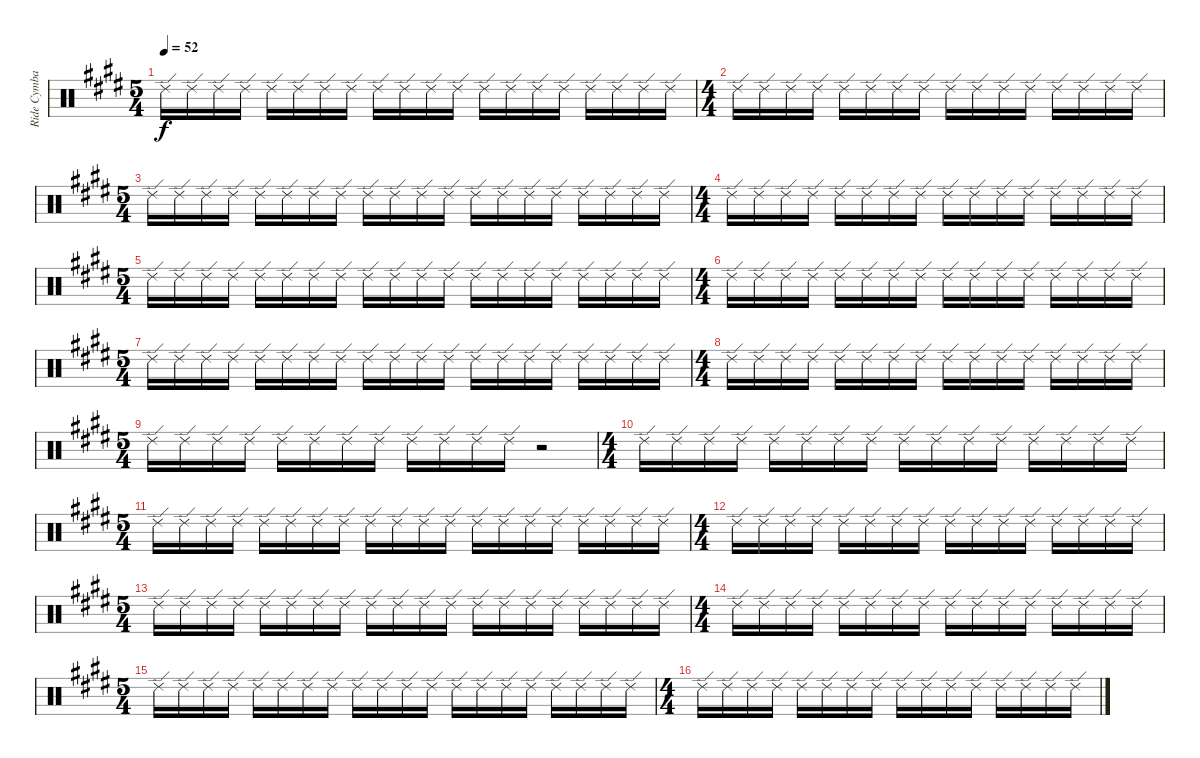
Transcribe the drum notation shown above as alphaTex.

\track ("Ride Cymbal" "Ride Cymba") {instrument percussion}
\staff {score}
\articulation defaults
\ts (5 4)
\tempo 52
\clef neutral
\ks e "Ride (edge) 2".16{dy f} "Ride (edge) 2".16 "Ride (edge) 2".16 "Ride (edge) 2".16 "Ride (edge) 2".16 "Ride (edge) 2".16 "Ride (edge) 2".16 "Ride (edge) 2".16 "Ride (edge) 2".16 "Ride (edge) 2".16 "Ride (edge) 2".16 "Ride (edge) 2".16 "Ride (edge) 2".16 "Ride (edge) 2".16 "Ride (edge) 2".16 "Ride (edge) 2".16 "Ride (edge) 2".16 "Ride (edge) 2".16 "Ride (edge) 2".16 "Ride (edge) 2".16
|
\ts (4 4)
"Ride (edge) 2".16 "Ride (edge) 2".16 "Ride (edge) 2".16 "Ride (edge) 2".16 "Ride (edge) 2".16 "Ride (edge) 2".16 "Ride (edge) 2".16 "Ride (edge) 2".16 "Ride (edge) 2".16 "Ride (edge) 2".16 "Ride (edge) 2".16 "Ride (edge) 2".16 "Ride (edge) 2".16 "Ride (edge) 2".16 "Ride (edge) 2".16 "Ride (edge) 2".16 |
\ts (5 4)
"Ride (edge) 2".16 "Ride (edge) 2".16 "Ride (edge) 2".16 "Ride (edge) 2".16 "Ride (edge) 2".16 "Ride (edge) 2".16 "Ride (edge) 2".16 "Ride (edge) 2".16 "Ride (edge) 2".16 "Ride (edge) 2".16 "Ride (edge) 2".16 "Ride (edge) 2".16 "Ride (edge) 2".16 "Ride (edge) 2".16 "Ride (edge) 2".16 "Ride (edge) 2".16 "Ride (edge) 2".16 "Ride (edge) 2".16 "Ride (edge) 2".16 "Ride (edge) 2".16 |
\ts (4 4)
"Ride (edge) 2".16 "Ride (edge) 2".16 "Ride (edge) 2".16 "Ride (edge) 2".16 "Ride (edge) 2".16 "Ride (edge) 2".16 "Ride (edge) 2".16 "Ride (edge) 2".16 "Ride (edge) 2".16 "Ride (edge) 2".16 "Ride (edge) 2".16 "Ride (edge) 2".16 "Ride (edge) 2".16 "Ride (edge) 2".16 "Ride (edge) 2".16 "Ride (edge) 2".16 |
\ts (5 4)
"Ride (edge) 2".16 "Ride (edge) 2".16 "Ride (edge) 2".16 "Ride (edge) 2".16 "Ride (edge) 2".16 "Ride (edge) 2".16 "Ride (edge) 2".16 "Ride (edge) 2".16 "Ride (edge) 2".16 "Ride (edge) 2".16 "Ride (edge) 2".16 "Ride (edge) 2".16 "Ride (edge) 2".16 "Ride (edge) 2".16 "Ride (edge) 2".16 "Ride (edge) 2".16 "Ride (edge) 2".16 "Ride (edge) 2".16 "Ride (edge) 2".16 "Ride (edge) 2".16 |
\ts (4 4)
"Ride (edge) 2".16 "Ride (edge) 2".16 "Ride (edge) 2".16 "Ride (edge) 2".16 "Ride (edge) 2".16 "Ride (edge) 2".16 "Ride (edge) 2".16 "Ride (edge) 2".16 "Ride (edge) 2".16 "Ride (edge) 2".16 "Ride (edge) 2".16 "Ride (edge) 2".16 "Ride (edge) 2".16 "Ride (edge) 2".16 "Ride (edge) 2".16 "Ride (edge) 2".16 |
\ts (5 4)
"Ride (edge) 2".16 "Ride (edge) 2".16 "Ride (edge) 2".16 "Ride (edge) 2".16 "Ride (edge) 2".16 "Ride (edge) 2".16 "Ride (edge) 2".16 "Ride (edge) 2".16 "Ride (edge) 2".16 "Ride (edge) 2".16 "Ride (edge) 2".16 "Ride (edge) 2".16 "Ride (edge) 2".16 "Ride (edge) 2".16 "Ride (edge) 2".16 "Ride (edge) 2".16 "Ride (edge) 2".16 "Ride (edge) 2".16 "Ride (edge) 2".16 "Ride (edge) 2".16 |
\ts (4 4)
"Ride (edge) 2".16 "Ride (edge) 2".16 "Ride (edge) 2".16 "Ride (edge) 2".16 "Ride (edge) 2".16 "Ride (edge) 2".16 "Ride (edge) 2".16 "Ride (edge) 2".16 "Ride (edge) 2".16 "Ride (edge) 2".16 "Ride (edge) 2".16 "Ride (edge) 2".16 "Ride (edge) 2".16 "Ride (edge) 2".16 "Ride (edge) 2".16 "Ride (edge) 2".16 |
\ts (5 4)
"Ride (edge) 2".16 "Ride (edge) 2".16 "Ride (edge) 2".16 "Ride (edge) 2".16 "Ride (edge) 2".16 "Ride (edge) 2".16 "Ride (edge) 2".16 "Ride (edge) 2".16 "Ride (edge) 2".16 "Ride (edge) 2".16 "Ride (edge) 2".16 "Ride (edge) 2".16 r.2 |
\ts (4 4)
"Ride (edge) 2".16 "Ride (edge) 2".16 "Ride (edge) 2".16 "Ride (edge) 2".16 "Ride (edge) 2".16 "Ride (edge) 2".16 "Ride (edge) 2".16 "Ride (edge) 2".16 "Ride (edge) 2".16 "Ride (edge) 2".16 "Ride (edge) 2".16 "Ride (edge) 2".16 "Ride (edge) 2".16 "Ride (edge) 2".16 "Ride (edge) 2".16 "Ride (edge) 2".16 |
\ts (5 4)
"Ride (edge) 2".16 "Ride (edge) 2".16 "Ride (edge) 2".16 "Ride (edge) 2".16 "Ride (edge) 2".16 "Ride (edge) 2".16 "Ride (edge) 2".16 "Ride (edge) 2".16 "Ride (edge) 2".16 "Ride (edge) 2".16 "Ride (edge) 2".16 "Ride (edge) 2".16 "Ride (edge) 2".16 "Ride (edge) 2".16 "Ride (edge) 2".16 "Ride (edge) 2".16 "Ride (edge) 2".16 "Ride (edge) 2".16 "Ride (edge) 2".16 "Ride (edge) 2".16 |
\ts (4 4)
"Ride (edge) 2".16 "Ride (edge) 2".16 "Ride (edge) 2".16 "Ride (edge) 2".16 "Ride (edge) 2".16 "Ride (edge) 2".16 "Ride (edge) 2".16 "Ride (edge) 2".16 "Ride (edge) 2".16 "Ride (edge) 2".16 "Ride (edge) 2".16 "Ride (edge) 2".16 "Ride (edge) 2".16 "Ride (edge) 2".16 "Ride (edge) 2".16 "Ride (edge) 2".16 |
\ts (5 4)
"Ride (edge) 2".16 "Ride (edge) 2".16 "Ride (edge) 2".16 "Ride (edge) 2".16 "Ride (edge) 2".16 "Ride (edge) 2".16 "Ride (edge) 2".16 "Ride (edge) 2".16 "Ride (edge) 2".16 "Ride (edge) 2".16 "Ride (edge) 2".16 "Ride (edge) 2".16 "Ride (edge) 2".16 "Ride (edge) 2".16 "Ride (edge) 2".16 "Ride (edge) 2".16 "Ride (edge) 2".16 "Ride (edge) 2".16 "Ride (edge) 2".16 "Ride (edge) 2".16 |
\ts (4 4)
"Ride (edge) 2".16 "Ride (edge) 2".16 "Ride (edge) 2".16 "Ride (edge) 2".16 "Ride (edge) 2".16 "Ride (edge) 2".16 "Ride (edge) 2".16 "Ride (edge) 2".16 "Ride (edge) 2".16 "Ride (edge) 2".16 "Ride (edge) 2".16 "Ride (edge) 2".16 "Ride (edge) 2".16 "Ride (edge) 2".16 "Ride (edge) 2".16 "Ride (edge) 2".16 |
\ts (5 4)
"Ride (edge) 2".16 "Ride (edge) 2".16 "Ride (edge) 2".16 "Ride (edge) 2".16 "Ride (edge) 2".16 "Ride (edge) 2".16 "Ride (edge) 2".16 "Ride (edge) 2".16 "Ride (edge) 2".16 "Ride (edge) 2".16 "Ride (edge) 2".16 "Ride (edge) 2".16 "Ride (edge) 2".16 "Ride (edge) 2".16 "Ride (edge) 2".16 "Ride (edge) 2".16 "Ride (edge) 2".16 "Ride (edge) 2".16 "Ride (edge) 2".16 "Ride (edge) 2".16 |
\ts (4 4)
"Ride (edge) 2".16 "Ride (edge) 2".16 "Ride (edge) 2".16 "Ride (edge) 2".16 "Ride (edge) 2".16 "Ride (edge) 2".16 "Ride (edge) 2".16 "Ride (edge) 2".16 "Ride (edge) 2".16 "Ride (edge) 2".16 "Ride (edge) 2".16 "Ride (edge) 2".16 "Ride (edge) 2".16 "Ride (edge) 2".16 "Ride (edge) 2".16 "Ride (edge) 2".16
